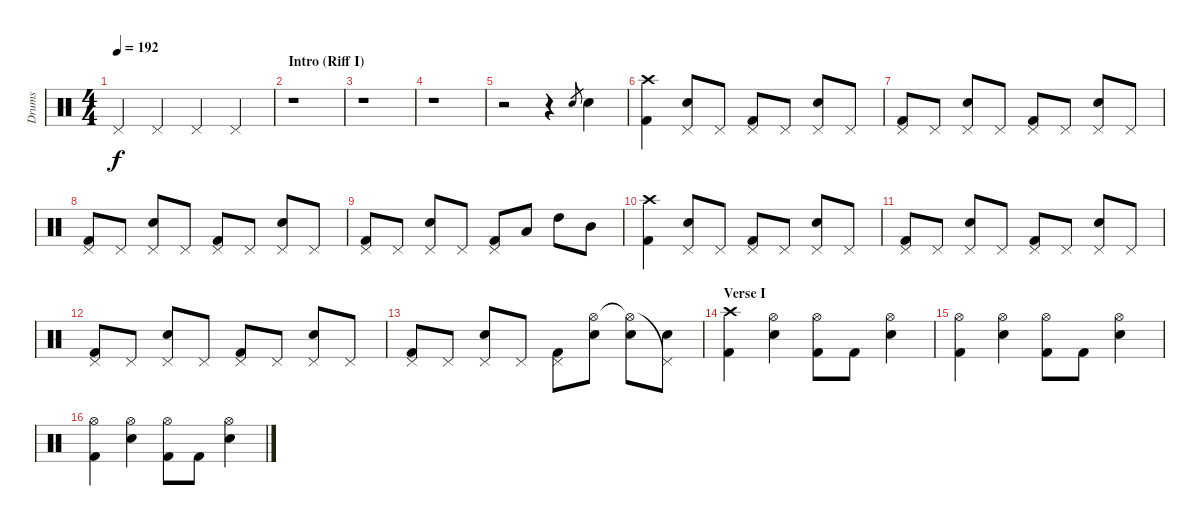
\track ("Drums" "Drums") {instrument percussion}
\staff {score}
\articulation defaults
\ts (4 4)
\tempo 192
\tempo 190
\tempo 192
\clef neutral
\ks c "Pedal Hi-Hat (hit)".4{dy f} "Pedal Hi-Hat (hit)".4 "Pedal Hi-Hat (hit)".4 "Pedal Hi-Hat (hit)".4
|
\section ("" "Intro (Riff I)")
r.1 |
r.1 |
r.1 |
r.2 r.4 "Electric Snare (hit)".8{gr} "Electric Snare (hit)".4 |
("Crash high (hit)" "Kick (hit) 2").4 ("Pedal Hi-Hat (hit)" "Electric Snare (hit)").8 "Pedal Hi-Hat (hit)".8 ("Pedal Hi-Hat (hit)" "Kick (hit) 2").8 "Pedal Hi-Hat (hit)".8 ("Pedal Hi-Hat (hit)" "Electric Snare (hit)").8 "Pedal Hi-Hat (hit)".8 |
("Pedal Hi-Hat (hit)" "Kick (hit) 2").8 "Pedal Hi-Hat (hit)".8 ("Pedal Hi-Hat (hit)" "Electric Snare (hit)").8 "Pedal Hi-Hat (hit)".8 ("Pedal Hi-Hat (hit)" "Kick (hit) 2").8 "Pedal Hi-Hat (hit)".8 ("Pedal Hi-Hat (hit)" "Electric Snare (hit)").8 "Pedal Hi-Hat (hit)".8 |
("Pedal Hi-Hat (hit)" "Kick (hit) 2").8 "Pedal Hi-Hat (hit)".8 ("Pedal Hi-Hat (hit)" "Electric Snare (hit)").8 "Pedal Hi-Hat (hit)".8 ("Pedal Hi-Hat (hit)" "Kick (hit) 2").8 "Pedal Hi-Hat (hit)".8 ("Pedal Hi-Hat (hit)" "Electric Snare (hit)").8 "Pedal Hi-Hat (hit)".8 |
("Pedal Hi-Hat (hit)" "Kick (hit) 2").8 "Pedal Hi-Hat (hit)".8 ("Pedal Hi-Hat (hit)" "Electric Snare (hit)").8 "Pedal Hi-Hat (hit)".8 ("Pedal Hi-Hat (hit)" "Kick (hit) 2").8 "Low Tom (hit)".8 "High Tom (hit)".8 "Mid Tom (hit)".8 |
("Crash high (hit)" "Kick (hit) 2").4 ("Pedal Hi-Hat (hit)" "Electric Snare (hit)").8 "Pedal Hi-Hat (hit)".8 ("Pedal Hi-Hat (hit)" "Kick (hit) 2").8 "Pedal Hi-Hat (hit)".8 ("Pedal Hi-Hat (hit)" "Electric Snare (hit)").8 "Pedal Hi-Hat (hit)".8 |
("Pedal Hi-Hat (hit)" "Kick (hit) 2").8 "Pedal Hi-Hat (hit)".8 ("Pedal Hi-Hat (hit)" "Electric Snare (hit)").8 "Pedal Hi-Hat (hit)".8 ("Pedal Hi-Hat (hit)" "Kick (hit) 2").8 "Pedal Hi-Hat (hit)".8 ("Pedal Hi-Hat (hit)" "Electric Snare (hit)").8 "Pedal Hi-Hat (hit)".8 |
("Pedal Hi-Hat (hit)" "Kick (hit) 2").8 "Pedal Hi-Hat (hit)".8 ("Pedal Hi-Hat (hit)" "Electric Snare (hit)").8 "Pedal Hi-Hat (hit)".8 ("Pedal Hi-Hat (hit)" "Kick (hit) 2").8 "Pedal Hi-Hat (hit)".8 ("Pedal Hi-Hat (hit)" "Electric Snare (hit)").8 "Pedal Hi-Hat (hit)".8 |
("Pedal Hi-Hat (hit)" "Kick (hit) 2").8 "Pedal Hi-Hat (hit)".8 ("Pedal Hi-Hat (hit)" "Electric Snare (hit)").8 "Pedal Hi-Hat (hit)".8 ("Pedal Hi-Hat (hit)" "Kick (hit) 2").8 ("Hi-Hat (open)" "Electric Snare (hit)").8 ("Hi-Hat (open)"{t} "Electric Snare (hit)").8 ("Pedal Hi-Hat (hit)"{t} "Electric Snare (hit)").8 |
\section ("" "Verse I")
("Crash high (hit)" "Kick (hit) 2").4 ("Hi-Hat (open)" "Electric Snare (hit)").4 ("Hi-Hat (open)" "Kick (hit) 2").8 "Kick (hit) 2".8 ("Hi-Hat (open)" "Electric Snare (hit)").4 |
("Hi-Hat (open)" "Kick (hit) 2").4 ("Hi-Hat (open)" "Electric Snare (hit)").4 ("Hi-Hat (open)" "Kick (hit) 2").8 "Kick (hit) 2".8 ("Hi-Hat (open)" "Electric Snare (hit)").4 |
("Hi-Hat (open)" "Kick (hit) 2").4 ("Hi-Hat (open)" "Electric Snare (hit)").4 ("Hi-Hat (open)" "Kick (hit) 2").8 "Kick (hit) 2".8 ("Hi-Hat (open)" "Electric Snare (hit)").4
